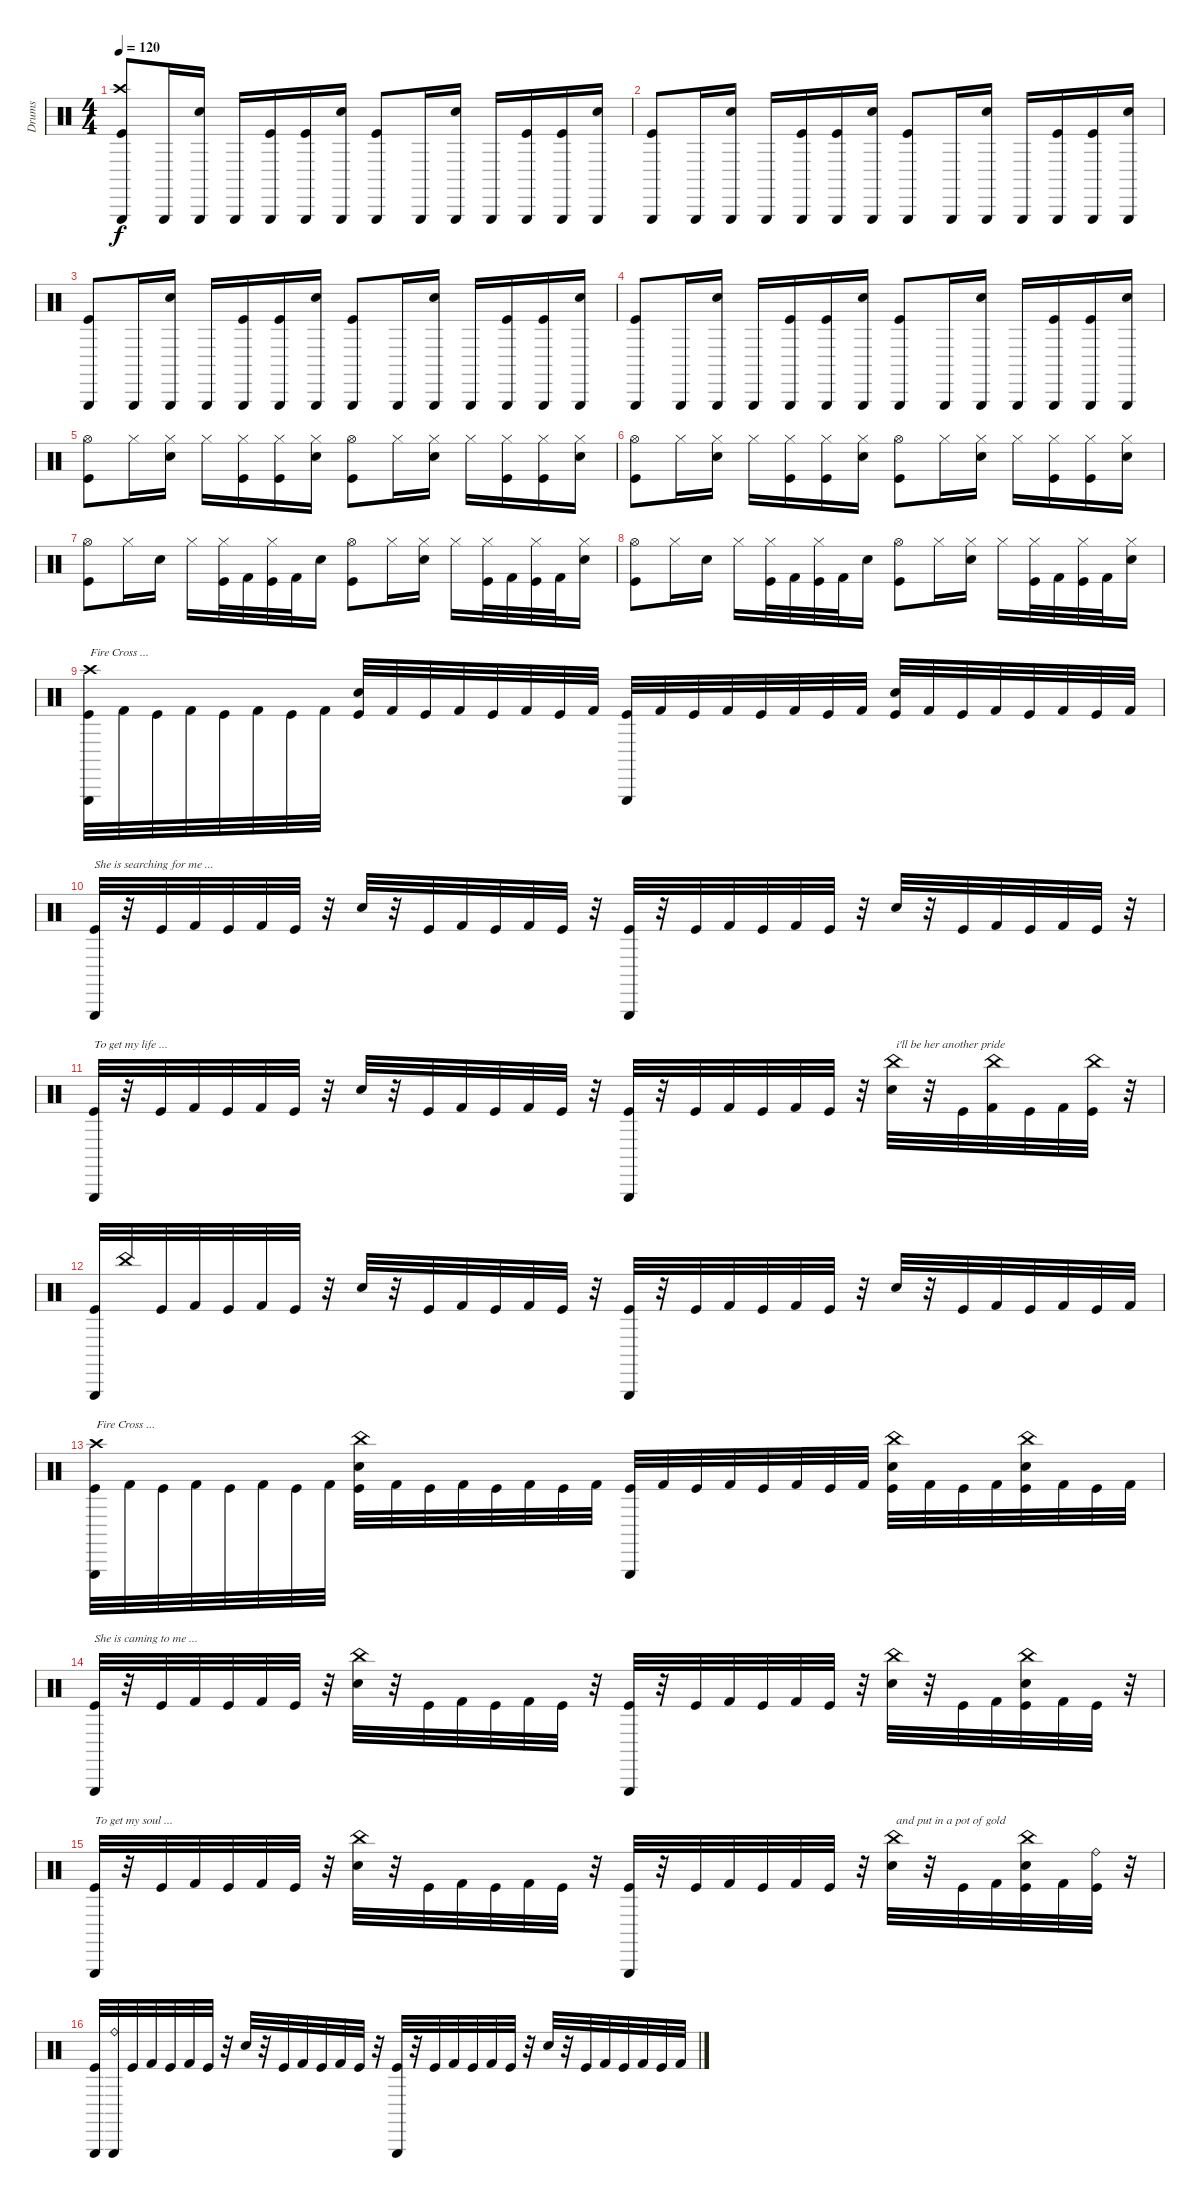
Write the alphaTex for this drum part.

\track ("Drums" "Drums") {instrument percussion}
\staff {score}
\articulation defaults
\ts (4 4)
\tempo 120
\clef neutral
\ks c
("Crash high (hit)" "Triangle (hit)" "Kick (hit)").8{dy f} "Triangle (hit)".16 ("Triangle (hit)" "Snare (hit) 2").16 "Triangle (hit)".16 ("Triangle (hit)" "Kick (hit)").16 ("Triangle (hit)" "Kick (hit)").16 ("Triangle (hit)" "Snare (hit) 2").16 ("Triangle (hit)" "Kick (hit)").8 "Triangle (hit)".16 ("Triangle (hit)" "Snare (hit) 2").16 "Triangle (hit)".16 ("Triangle (hit)" "Kick (hit)").16 ("Triangle (hit)" "Kick (hit)").16 ("Triangle (hit)" "Snare (hit) 2").16 |
("Triangle (hit)" "Kick (hit)").8 "Triangle (hit)".16 ("Triangle (hit)" "Snare (hit) 2").16 "Triangle (hit)".16 ("Triangle (hit)" "Kick (hit)").16 ("Triangle (hit)" "Kick (hit)").16 ("Triangle (hit)" "Snare (hit) 2").16 ("Triangle (hit)" "Kick (hit)").8 "Triangle (hit)".16 ("Triangle (hit)" "Snare (hit) 2").16 "Triangle (hit)".16 ("Triangle (hit)" "Kick (hit)").16 ("Triangle (hit)" "Kick (hit)").16 ("Triangle (hit)" "Snare (hit) 2").16 |
("Triangle (hit)" "Kick (hit)").8 "Triangle (hit)".16 ("Triangle (hit)" "Snare (hit) 2").16 "Triangle (hit)".16 ("Triangle (hit)" "Kick (hit)").16 ("Triangle (hit)" "Kick (hit)").16 ("Triangle (hit)" "Snare (hit) 2").16 ("Triangle (hit)" "Kick (hit)").8 "Triangle (hit)".16 ("Triangle (hit)" "Snare (hit) 2").16 "Triangle (hit)".16 ("Triangle (hit)" "Kick (hit)").16 ("Triangle (hit)" "Kick (hit)").16 ("Triangle (hit)" "Snare (hit) 2").16 |
("Triangle (hit)" "Kick (hit)").8 "Triangle (hit)".16 ("Triangle (hit)" "Snare (hit) 2").16 "Triangle (hit)".16 ("Triangle (hit)" "Kick (hit)").16 ("Triangle (hit)" "Kick (hit)").16 ("Triangle (hit)" "Snare (hit) 2").16 ("Triangle (hit)" "Kick (hit)").8 "Triangle (hit)".16 ("Triangle (hit)" "Snare (hit) 2").16 "Triangle (hit)".16 ("Triangle (hit)" "Kick (hit)").16 ("Triangle (hit)" "Kick (hit)").16 ("Triangle (hit)" "Snare (hit) 2").16 |
("Hi-Hat (open)" "Kick (hit)").8 "Hi-Hat (closed)".16 ("Hi-Hat (closed)" "Snare (hit) 2").16 "Hi-Hat (closed)".16 ("Hi-Hat (closed)" "Kick (hit)").16 ("Hi-Hat (closed)" "Kick (hit)").16 ("Hi-Hat (closed)" "Snare (hit) 2").16 ("Hi-Hat (open)" "Kick (hit)").8 "Hi-Hat (closed)".16 ("Hi-Hat (closed)" "Snare (hit) 2").16 "Hi-Hat (closed)".16 ("Hi-Hat (closed)" "Kick (hit)").16 ("Hi-Hat (closed)" "Kick (hit)").16 ("Hi-Hat (closed)" "Snare (hit) 2").16 |
("Hi-Hat (open)" "Kick (hit)").8 "Hi-Hat (closed)".16 ("Hi-Hat (closed)" "Snare (hit) 2").16 "Hi-Hat (closed)".16 ("Hi-Hat (closed)" "Kick (hit)").16 ("Hi-Hat (closed)" "Kick (hit)").16 ("Hi-Hat (closed)" "Snare (hit) 2").16 ("Hi-Hat (open)" "Kick (hit)").8 "Hi-Hat (closed)".16 ("Hi-Hat (closed)" "Snare (hit) 2").16 "Hi-Hat (closed)".16 ("Hi-Hat (closed)" "Kick (hit)").16 ("Hi-Hat (closed)" "Kick (hit)").16 ("Hi-Hat (closed)" "Snare (hit) 2").16 |
("Hi-Hat (open)" "Kick (hit)").8 "Hi-Hat (closed)".16 "Snare (hit) 2".16 "Hi-Hat (closed)".16 ("Hi-Hat (closed)" "Kick (hit)").32 "Kick (hit) 2".32 ("Hi-Hat (closed)" "Kick (hit)").32 "Kick (hit) 2".32 "Snare (hit) 2".16 ("Hi-Hat (open)" "Kick (hit)").8 "Hi-Hat (closed)".16 ("Hi-Hat (closed)" "Snare (hit) 2").16 "Hi-Hat (closed)".16 ("Hi-Hat (closed)" "Kick (hit)").32 "Kick (hit) 2".32 ("Hi-Hat (closed)" "Kick (hit)").32 "Kick (hit) 2".32 ("Hi-Hat (closed)" "Snare (hit) 2").16 |
("Hi-Hat (open)" "Kick (hit)").8 "Hi-Hat (closed)".16 "Snare (hit) 2".16 "Hi-Hat (closed)".16 ("Hi-Hat (closed)" "Kick (hit)").32 "Kick (hit) 2".32 ("Hi-Hat (closed)" "Kick (hit)").32 "Kick (hit) 2".32 "Snare (hit) 2".16 ("Hi-Hat (open)" "Kick (hit)").8 "Hi-Hat (closed)".16 ("Hi-Hat (closed)" "Snare (hit) 2").16 "Hi-Hat (closed)".16 ("Hi-Hat (closed)" "Kick (hit)").32 "Kick (hit) 2".32 ("Hi-Hat (closed)" "Kick (hit)").32 "Kick (hit) 2".32 ("Hi-Hat (closed)" "Snare (hit) 2").16 |
("Crash high (hit)" "Triangle (hit)" "Kick (hit)").32{txt "Fire Cross ..."} "Kick (hit) 2".32 "Kick (hit)".32 "Kick (hit) 2".32 "Kick (hit)".32 "Kick (hit) 2".32 "Kick (hit)".32 "Kick (hit) 2".32 ("Snare (hit) 2" "Kick (hit)").32 "Kick (hit) 2".32 "Kick (hit)".32 "Kick (hit) 2".32 "Kick (hit)".32 "Kick (hit) 2".32 "Kick (hit)".32 "Kick (hit) 2".32 ("Triangle (hit)" "Kick (hit)").32 "Kick (hit) 2".32 "Kick (hit)".32 "Kick (hit) 2".32 "Kick (hit)".32 "Kick (hit) 2".32 "Kick (hit)".32 "Kick (hit) 2".32 ("Snare (hit) 2" "Kick (hit)").32 "Kick (hit) 2".32 "Kick (hit)".32 "Kick (hit) 2".32 "Kick (hit)".32 "Kick (hit) 2".32 "Kick (hit)".32 "Kick (hit) 2".32 |
("Triangle (hit)" "Kick (hit)").32{txt "She is searching for me ..."} r.32 "Kick (hit)".32 "Kick (hit) 2".32 "Kick (hit)".32 "Kick (hit) 2".32 "Kick (hit)".32 r.32 "Snare (hit) 2".32 r.32 "Kick (hit)".32 "Kick (hit) 2".32 "Kick (hit)".32 "Kick (hit) 2".32 "Kick (hit)".32 r.32 ("Triangle (hit)" "Kick (hit)").32 r.32 "Kick (hit)".32 "Kick (hit) 2".32 "Kick (hit)".32 "Kick (hit) 2".32 "Kick (hit)".32 r.32 "Snare (hit) 2".32 r.32 "Kick (hit)".32 "Kick (hit) 2".32 "Kick (hit)".32 "Kick (hit) 2".32 "Kick (hit)".32 r.32 |
("Triangle (hit)" "Kick (hit)").32{txt "To get my life ..."} r.32 "Kick (hit)".32 "Kick (hit) 2".32 "Kick (hit)".32 "Kick (hit) 2".32 "Kick (hit)".32 r.32 "Snare (hit) 2".32 r.32 "Kick (hit)".32 "Kick (hit) 2".32 "Kick (hit)".32 "Kick (hit) 2".32 "Kick (hit)".32 r.32 ("Triangle (hit)" "Kick (hit)").32 r.32 "Kick (hit)".32 "Kick (hit) 2".32 "Kick (hit)".32 "Kick (hit) 2".32 "Kick (hit)".32 r.32 ("China (hit)" "Snare (hit) 2").32{txt "i'll be her another pride"} r.32 "Kick (hit)".32 ("China (hit)" "Kick (hit) 2").32 "Kick (hit)".32 "Kick (hit) 2".32 ("China (hit)" "Kick (hit)").32 r.32 |
("Triangle (hit)" "Kick (hit)").32 "China (hit)".32 "Kick (hit)".32 "Kick (hit) 2".32 "Kick (hit)".32 "Kick (hit) 2".32 "Kick (hit)".32 r.32 "Snare (hit) 2".32 r.32 "Kick (hit)".32 "Kick (hit) 2".32 "Kick (hit)".32 "Kick (hit) 2".32 "Kick (hit)".32 r.32 ("Triangle (hit)" "Kick (hit)").32 r.32 "Kick (hit)".32 "Kick (hit) 2".32 "Kick (hit)".32 "Kick (hit) 2".32 "Kick (hit)".32 r.32 "Snare (hit) 2".32 r.32 "Kick (hit)".32 "Kick (hit) 2".32 "Kick (hit)".32 "Kick (hit) 2".32 "Kick (hit)".32 "Kick (hit) 2".32 |
("Crash high (hit)" "Triangle (hit)" "Kick (hit)").32{txt "Fire Cross ..."} "Kick (hit) 2".32 "Kick (hit)".32 "Kick (hit) 2".32 "Kick (hit)".32 "Kick (hit) 2".32 "Kick (hit)".32 "Kick (hit) 2".32 ("China (hit)" "Snare (hit) 2" "Kick (hit)").32 "Kick (hit) 2".32 "Kick (hit)".32 "Kick (hit) 2".32 "Kick (hit)".32 "Kick (hit) 2".32 "Kick (hit)".32 "Kick (hit) 2".32 ("Triangle (hit)" "Kick (hit)").32 "Kick (hit) 2".32 "Kick (hit)".32 "Kick (hit) 2".32 "Kick (hit)".32 "Kick (hit) 2".32 "Kick (hit)".32 "Kick (hit) 2".32 ("China (hit)" "Snare (hit) 2" "Kick (hit)").32 "Kick (hit) 2".32 "Kick (hit)".32 "Kick (hit) 2".32 ("China (hit)" "Snare (hit) 2" "Kick (hit)").32 "Kick (hit) 2".32 "Kick (hit)".32 "Kick (hit) 2".32 |
("Triangle (hit)" "Kick (hit)").32{txt "She is caming to me ..."} r.32 "Kick (hit)".32 "Kick (hit) 2".32 "Kick (hit)".32 "Kick (hit) 2".32 "Kick (hit)".32 r.32 ("China (hit)" "Snare (hit) 2").32 r.32 "Kick (hit)".32 "Kick (hit) 2".32 "Kick (hit)".32 "Kick (hit) 2".32 "Kick (hit)".32 r.32 ("Triangle (hit)" "Kick (hit)").32 r.32 "Kick (hit)".32 "Kick (hit) 2".32 "Kick (hit)".32 "Kick (hit) 2".32 "Kick (hit)".32 r.32 ("China (hit)" "Snare (hit) 2").32 r.32 "Kick (hit)".32 "Kick (hit) 2".32 ("China (hit)" "Snare (hit) 2" "Kick (hit)").32 "Kick (hit) 2".32 "Kick (hit)".32 r.32 |
("Triangle (hit)" "Kick (hit)").32{txt "To get my soul ..."} r.32 "Kick (hit)".32 "Kick (hit) 2".32 "Kick (hit)".32 "Kick (hit) 2".32 "Kick (hit)".32 r.32 ("China (hit)" "Snare (hit) 2").32 r.32 "Kick (hit)".32 "Kick (hit) 2".32 "Kick (hit)".32 "Kick (hit) 2".32 "Kick (hit)".32 r.32 ("Triangle (hit)" "Kick (hit)").32 r.32 "Kick (hit)".32 "Kick (hit) 2".32 "Kick (hit)".32 "Kick (hit) 2".32 "Kick (hit)".32 r.32 ("China (hit)" "Snare (hit) 2").32{txt "and put in a pot of gold"} r.32 "Kick (hit)".32 "Kick (hit) 2".32 ("China (hit)" "Snare (hit) 2" "Kick (hit)").32 "Kick (hit) 2".32 ("Ride (bell)" "Kick (hit)").32 r.32 |
("Triangle (hit)" "Kick (hit)").32 ("Ride (bell)" "Triangle (hit)").32 "Kick (hit)".32 "Kick (hit) 2".32 "Kick (hit)".32 "Kick (hit) 2".32 "Kick (hit)".32 r.32 "Snare (hit) 2".32 r.32 "Kick (hit)".32 "Kick (hit) 2".32 "Kick (hit)".32 "Kick (hit) 2".32 "Kick (hit)".32 r.32 ("Triangle (hit)" "Kick (hit)").32 r.32 "Kick (hit)".32 "Kick (hit) 2".32 "Kick (hit)".32 "Kick (hit) 2".32 "Kick (hit)".32 r.32 "Snare (hit) 2".32 r.32 "Kick (hit)".32 "Kick (hit) 2".32 "Kick (hit)".32 "Kick (hit) 2".32 "Kick (hit)".32 "Kick (hit) 2".32
